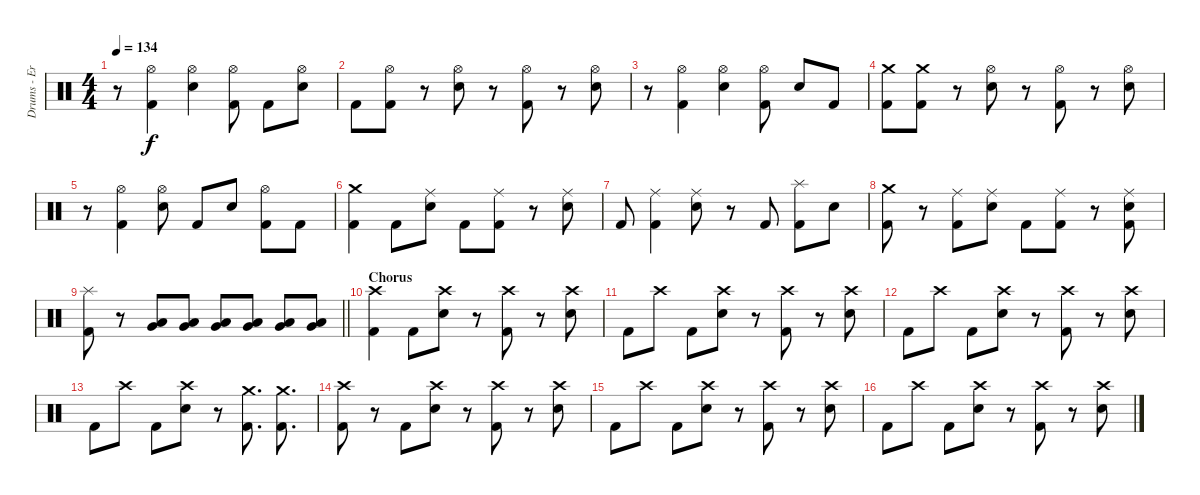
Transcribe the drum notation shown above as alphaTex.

\track ("Drums - Eric Young" "Drums - Er") {instrument percussion}
\staff {score}
\articulation defaults
\ts (4 4)
\tempo 134
\clef neutral
\ks c
r.8{dy f} ("Hi-Hat (open)" "Kick (hit) 2").4 ("Hi-Hat (open)" "Electric Snare (hit)").4 ("Hi-Hat (open)" "Kick (hit) 2").8 "Kick (hit) 2".8 ("Hi-Hat (open)" "Electric Snare (hit)").8 |
"Kick (hit) 2".8 ("Hi-Hat (open)" "Kick (hit) 2").8 r.8 ("Hi-Hat (open)" "Electric Snare (hit)").8 r.8 ("Hi-Hat (open)" "Kick (hit) 2").8 r.8 ("Hi-Hat (open)" "Electric Snare (hit)").8 |
r.8 ("Hi-Hat (open)" "Kick (hit) 2").4 ("Hi-Hat (open)" "Electric Snare (hit)").4 ("Hi-Hat (open)" "Kick (hit) 2").8 "Electric Snare (hit)".8 "Kick (hit) 2".8 |
("Crash medium (hit)" "Kick (hit) 2").8 ("Crash medium (hit)" "Kick (hit) 2").8 r.8 ("Hi-Hat (open)" "Electric Snare (hit)").8 r.8 ("Hi-Hat (open)" "Kick (hit) 2").8 r.8 ("Hi-Hat (open)" "Electric Snare (hit)").8 |
r.8 ("Hi-Hat (open)" "Kick (hit) 2").4 ("Hi-Hat (open)" "Electric Snare (hit)").8 "Kick (hit) 2".8 "Electric Snare (hit)".8 ("Hi-Hat (open)" "Kick (hit) 2").8 "Kick (hit) 2".8 |
("Crash medium (hit)" "Kick (hit) 2").4 "Kick (hit) 2".8 ("Ride (middle)" "Electric Snare (hit)").8 "Kick (hit) 2".8 ("Ride (middle)" "Kick (hit) 2").8 r.8 ("Ride (middle)" "Electric Snare (hit)").8 |
"Kick (hit) 2".8 ("Ride (middle)" "Kick (hit) 2").4 ("Ride (middle)" "Electric Snare (hit)").8 r.8 "Kick (hit) 2".8 ("Splash (hit)" "Kick (hit) 2").8 "Electric Snare (hit)".8 |
("Crash medium (hit)" "Kick (hit) 2").8 r.8 ("Ride (middle)" "Kick (hit) 2").8 ("Ride (middle)" "Electric Snare (hit)").8 "Kick (hit) 2".8 ("Ride (middle)" "Kick (hit) 2").8 r.8 ("Ride (middle)" "Electric Snare (hit)" "Kick (hit) 2").8 |
\barLineRight lightlight
("Splash (hit)" "Kick (hit) 2").8 r.8 ("Low Tom (hit)" "Very Low Tom (hit)").8 ("Low Tom (hit)" "Very Low Tom (hit)").8 ("Low Tom (hit)" "Very Low Tom (hit)").8 ("Low Tom (hit)" "Very Low Tom (hit)").8 ("Low Tom (hit)" "Very Low Tom (hit)").8 ("Low Tom (hit)" "Very Low Tom (hit)").8 |
\section ("" "Chorus")
("Crash high (hit)" "Kick (hit) 2").4 "Kick (hit) 2".8 ("Crash high (hit)" "Electric Snare (hit)").8 r.8 ("Crash high (hit)" "Kick (hit) 2").8 r.8 ("Crash high (hit)" "Electric Snare (hit)").8 |
"Kick (hit) 2".8 "Crash high (hit)".8 "Kick (hit) 2".8 ("Crash high (hit)" "Electric Snare (hit)").8 r.8 ("Crash high (hit)" "Kick (hit) 2").8 r.8 ("Crash high (hit)" "Electric Snare (hit)").8 |
"Kick (hit) 2".8 "Crash high (hit)".8 "Kick (hit) 2".8 ("Crash high (hit)" "Electric Snare (hit)").8 r.8 ("Crash high (hit)" "Kick (hit) 2").8 r.8 ("Crash high (hit)" "Electric Snare (hit)").8 |
"Kick (hit) 2".8 "Crash high (hit)".8 "Kick (hit) 2".8 ("Crash high (hit)" "Electric Snare (hit)").8 r.8 ("Crash medium (hit)" "Kick (hit) 2").8{d} ("Crash medium (hit)" "Kick (hit) 2").8{d} |
("Crash high (hit)" "Kick (hit) 2").8 r.8 "Kick (hit) 2".8 ("Crash high (hit)" "Electric Snare (hit)").8 r.8 ("Crash high (hit)" "Kick (hit) 2").8 r.8 ("Crash high (hit)" "Electric Snare (hit)").8 |
"Kick (hit) 2".8 "Crash high (hit)".8 "Kick (hit) 2".8 ("Crash high (hit)" "Electric Snare (hit)").8 r.8 ("Crash high (hit)" "Kick (hit) 2").8 r.8 ("Crash high (hit)" "Electric Snare (hit)").8 |
"Kick (hit) 2".8 "Crash high (hit)".8 "Kick (hit) 2".8 ("Crash high (hit)" "Electric Snare (hit)").8 r.8 ("Crash high (hit)" "Kick (hit) 2").8 r.8 ("Crash high (hit)" "Electric Snare (hit)").8
